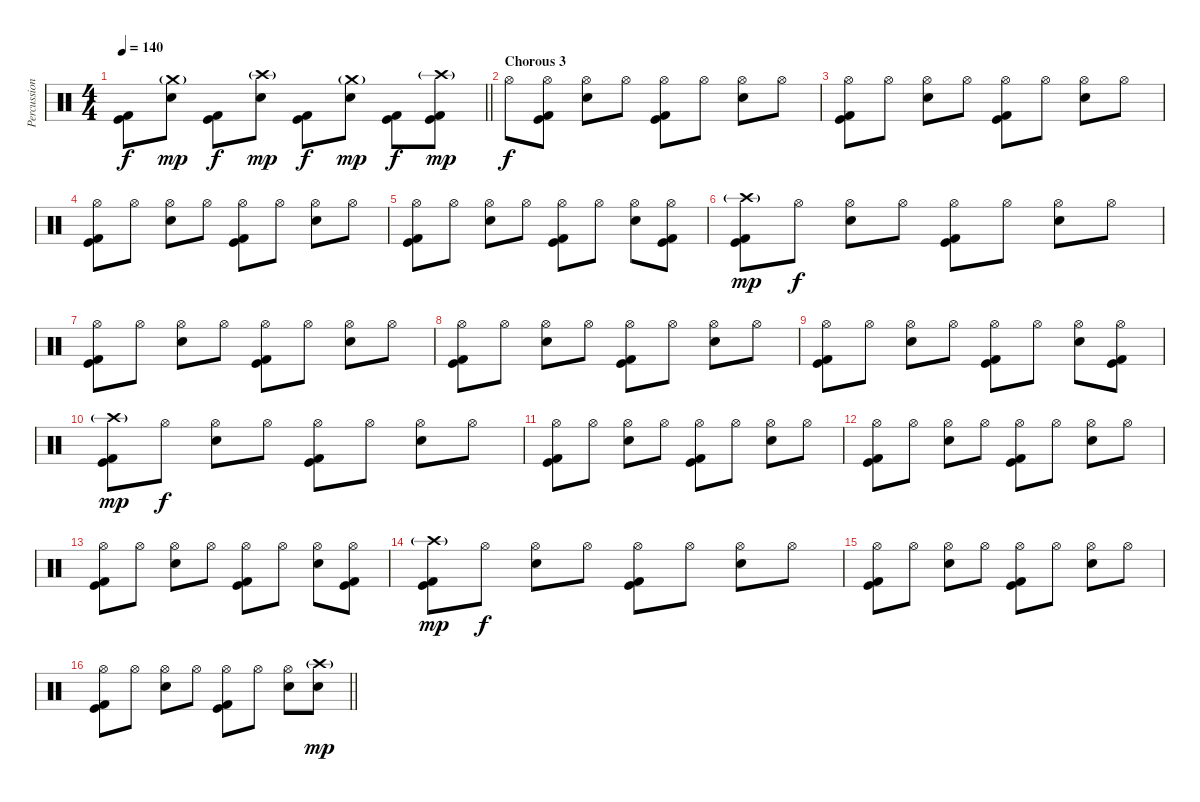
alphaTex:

\track ("Percussion" "Percussion") {instrument percussion}
\staff {score}
\articulation defaults
\ts (4 4)
\tempo 140
\clef neutral
\barLineRight lightlight
\ks c
("Kick (hit)" "Kick (hit) 2").8{dy f} ("Crash medium (hit)"{g} "Electric Snare (hit)").8{dy mp} ("Kick (hit)" "Kick (hit) 2").8{dy f} ("Crash high (hit)"{g} "Electric Snare (hit)").8{dy mp} ("Kick (hit)" "Kick (hit) 2").8{dy f} ("Crash medium (hit)"{g} "Electric Snare (hit)").8{dy mp} ("Kick (hit)" "Kick (hit) 2").8{dy f} ("Crash high (hit)"{g} "Kick (hit)" "Kick (hit) 2").8{dy mp} |
\section ("" "Chorous 3")
"Hi-Hat (open)".8{dy f} ("Hi-Hat (open)" "Kick (hit)" "Kick (hit) 2").8 ("Hi-Hat (open)" "Electric Snare (hit)").8 "Hi-Hat (open)".8 ("Hi-Hat (open)" "Kick (hit)" "Kick (hit) 2").8 "Hi-Hat (open)".8 ("Hi-Hat (open)" "Electric Snare (hit)").8 "Hi-Hat (open)".8 |
("Hi-Hat (open)" "Kick (hit)" "Kick (hit) 2").8 "Hi-Hat (open)".8 ("Hi-Hat (open)" "Electric Snare (hit)").8 "Hi-Hat (open)".8 ("Hi-Hat (open)" "Kick (hit)" "Kick (hit) 2").8 "Hi-Hat (open)".8 ("Hi-Hat (open)" "Electric Snare (hit)").8 "Hi-Hat (open)".8 |
("Hi-Hat (open)" "Kick (hit)" "Kick (hit) 2").8 "Hi-Hat (open)".8 ("Hi-Hat (open)" "Electric Snare (hit)").8 "Hi-Hat (open)".8 ("Hi-Hat (open)" "Kick (hit)" "Kick (hit) 2").8 "Hi-Hat (open)".8 ("Hi-Hat (open)" "Electric Snare (hit)").8 "Hi-Hat (open)".8 |
("Hi-Hat (open)" "Kick (hit)" "Kick (hit) 2").8 "Hi-Hat (open)".8 ("Hi-Hat (open)" "Electric Snare (hit)").8 "Hi-Hat (open)".8 ("Hi-Hat (open)" "Kick (hit)" "Kick (hit) 2").8 "Hi-Hat (open)".8 ("Hi-Hat (open)" "Electric Snare (hit)").8 ("Hi-Hat (open)" "Kick (hit)" "Kick (hit) 2").8 |
("Crash high (hit)"{g} "Kick (hit)" "Kick (hit) 2").8{dy mp} "Hi-Hat (open)".8{dy f} ("Hi-Hat (open)" "Electric Snare (hit)").8 "Hi-Hat (open)".8 ("Hi-Hat (open)" "Kick (hit)" "Kick (hit) 2").8 "Hi-Hat (open)".8 ("Hi-Hat (open)" "Electric Snare (hit)").8 "Hi-Hat (open)".8 |
("Hi-Hat (open)" "Kick (hit)" "Kick (hit) 2").8 "Hi-Hat (open)".8 ("Hi-Hat (open)" "Electric Snare (hit)").8 "Hi-Hat (open)".8 ("Hi-Hat (open)" "Kick (hit)" "Kick (hit) 2").8 "Hi-Hat (open)".8 ("Hi-Hat (open)" "Electric Snare (hit)").8 "Hi-Hat (open)".8 |
("Hi-Hat (open)" "Kick (hit)" "Kick (hit) 2").8 "Hi-Hat (open)".8 ("Hi-Hat (open)" "Electric Snare (hit)").8 "Hi-Hat (open)".8 ("Hi-Hat (open)" "Kick (hit)" "Kick (hit) 2").8 "Hi-Hat (open)".8 ("Hi-Hat (open)" "Electric Snare (hit)").8 "Hi-Hat (open)".8 |
("Hi-Hat (open)" "Kick (hit)" "Kick (hit) 2").8 "Hi-Hat (open)".8 ("Hi-Hat (open)" "Electric Snare (hit)").8 "Hi-Hat (open)".8 ("Hi-Hat (open)" "Kick (hit)" "Kick (hit) 2").8 "Hi-Hat (open)".8 ("Hi-Hat (open)" "Electric Snare (hit)").8 ("Hi-Hat (open)" "Kick (hit)" "Kick (hit) 2").8 |
("Crash high (hit)"{g} "Kick (hit)" "Kick (hit) 2").8{dy mp} "Hi-Hat (open)".8{dy f} ("Hi-Hat (open)" "Electric Snare (hit)").8 "Hi-Hat (open)".8 ("Hi-Hat (open)" "Kick (hit)" "Kick (hit) 2").8 "Hi-Hat (open)".8 ("Hi-Hat (open)" "Electric Snare (hit)").8 "Hi-Hat (open)".8 |
("Hi-Hat (open)" "Kick (hit)" "Kick (hit) 2").8 "Hi-Hat (open)".8 ("Hi-Hat (open)" "Electric Snare (hit)").8 "Hi-Hat (open)".8 ("Hi-Hat (open)" "Kick (hit)" "Kick (hit) 2").8 "Hi-Hat (open)".8 ("Hi-Hat (open)" "Electric Snare (hit)").8 "Hi-Hat (open)".8 |
("Hi-Hat (open)" "Kick (hit)" "Kick (hit) 2").8 "Hi-Hat (open)".8 ("Hi-Hat (open)" "Electric Snare (hit)").8 "Hi-Hat (open)".8 ("Hi-Hat (open)" "Kick (hit)" "Kick (hit) 2").8 "Hi-Hat (open)".8 ("Hi-Hat (open)" "Electric Snare (hit)").8 "Hi-Hat (open)".8 |
("Hi-Hat (open)" "Kick (hit)" "Kick (hit) 2").8 "Hi-Hat (open)".8 ("Hi-Hat (open)" "Electric Snare (hit)").8 "Hi-Hat (open)".8 ("Hi-Hat (open)" "Kick (hit)" "Kick (hit) 2").8 "Hi-Hat (open)".8 ("Hi-Hat (open)" "Electric Snare (hit)").8 ("Hi-Hat (open)" "Kick (hit)" "Kick (hit) 2").8 |
("Crash high (hit)"{g} "Kick (hit)" "Kick (hit) 2").8{dy mp} "Hi-Hat (open)".8{dy f} ("Hi-Hat (open)" "Electric Snare (hit)").8 "Hi-Hat (open)".8 ("Hi-Hat (open)" "Kick (hit)" "Kick (hit) 2").8 "Hi-Hat (open)".8 ("Hi-Hat (open)" "Electric Snare (hit)").8 "Hi-Hat (open)".8 |
("Hi-Hat (open)" "Kick (hit)" "Kick (hit) 2").8 "Hi-Hat (open)".8 ("Hi-Hat (open)" "Electric Snare (hit)").8 "Hi-Hat (open)".8 ("Hi-Hat (open)" "Kick (hit)" "Kick (hit) 2").8 "Hi-Hat (open)".8 ("Hi-Hat (open)" "Electric Snare (hit)").8 "Hi-Hat (open)".8 |
\barLineRight lightlight
("Hi-Hat (open)" "Kick (hit)" "Kick (hit) 2").8 "Hi-Hat (open)".8 ("Hi-Hat (open)" "Electric Snare (hit)").8 "Hi-Hat (open)".8 ("Hi-Hat (open)" "Kick (hit)" "Kick (hit) 2").8 "Hi-Hat (open)".8 ("Hi-Hat (open)" "Electric Snare (hit)").8 ("Crash high (hit)"{g} "Electric Snare (hit)").8{dy mp}
